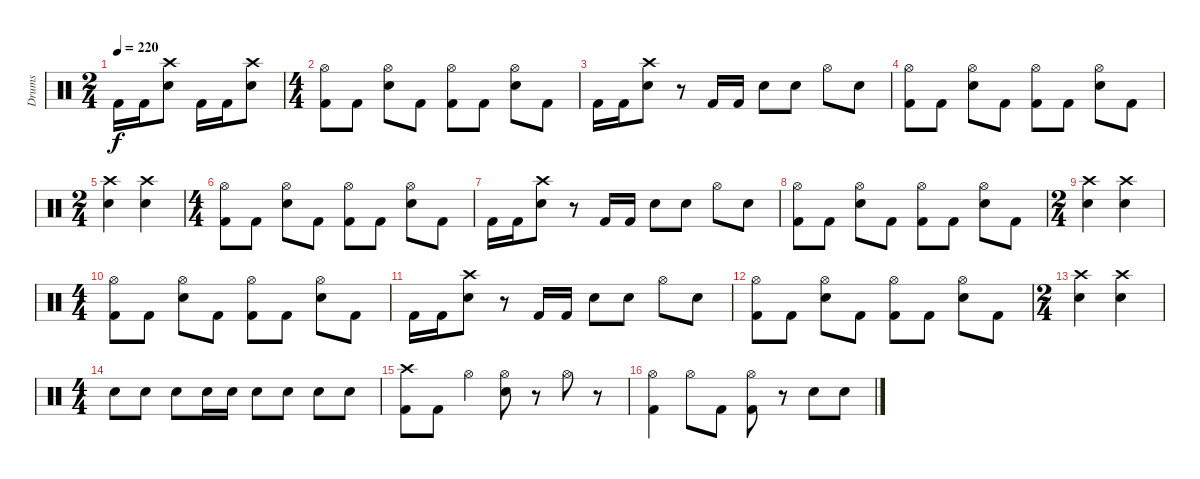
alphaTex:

\track ("Drums" "Drums") {instrument percussion}
\staff {score}
\articulation defaults
\ts (2 4)
\tempo 220
\clef neutral
\ks c "Kick (hit) 2".16{dy f} "Kick (hit) 2".16
("Crash high (hit)" "Snare (hit) 2").8 "Kick (hit) 2".16 "Kick (hit) 2".16 ("Crash high (hit)" "Snare (hit) 2").8 |
\ts (4 4)
("Hi-Hat (open)" "Kick (hit) 2").8 "Kick (hit) 2".8 ("Hi-Hat (open)" "Snare (hit) 2").8 "Kick (hit) 2".8 ("Hi-Hat (open)" "Kick (hit) 2").8 "Kick (hit) 2".8 ("Hi-Hat (open)" "Snare (hit) 2").8 "Kick (hit) 2".8 |
"Kick (hit) 2".16 "Kick (hit) 2".16 ("Crash high (hit)" "Snare (hit) 2").8 r.8 "Kick (hit) 2".16 "Kick (hit) 2".16 "Snare (hit) 2".8 "Snare (hit) 2".8 "Hi-Hat (open)".8 "Snare (hit) 2".8 |
("Hi-Hat (open)" "Kick (hit) 2").8 "Kick (hit) 2".8 ("Hi-Hat (open)" "Snare (hit) 2").8 "Kick (hit) 2".8 ("Hi-Hat (open)" "Kick (hit) 2").8 "Kick (hit) 2".8 ("Hi-Hat (open)" "Snare (hit) 2").8 "Kick (hit) 2".8 |
\ts (2 4)
("Crash high (hit)" "Snare (hit) 2").4 ("Crash high (hit)" "Snare (hit) 2").4 |
\ts (4 4)
("Hi-Hat (open)" "Kick (hit) 2").8 "Kick (hit) 2".8 ("Hi-Hat (open)" "Snare (hit) 2").8 "Kick (hit) 2".8 ("Hi-Hat (open)" "Kick (hit) 2").8 "Kick (hit) 2".8 ("Hi-Hat (open)" "Snare (hit) 2").8 "Kick (hit) 2".8 |
"Kick (hit) 2".16 "Kick (hit) 2".16 ("Crash high (hit)" "Snare (hit) 2").8 r.8 "Kick (hit) 2".16 "Kick (hit) 2".16 "Snare (hit) 2".8 "Snare (hit) 2".8 "Hi-Hat (open)".8 "Snare (hit) 2".8 |
("Hi-Hat (open)" "Kick (hit) 2").8 "Kick (hit) 2".8 ("Hi-Hat (open)" "Snare (hit) 2").8 "Kick (hit) 2".8 ("Hi-Hat (open)" "Kick (hit) 2").8 "Kick (hit) 2".8 ("Hi-Hat (open)" "Snare (hit) 2").8 "Kick (hit) 2".8 |
\ts (2 4)
("Crash high (hit)" "Snare (hit) 2").4 ("Crash high (hit)" "Snare (hit) 2").4 |
\ts (4 4)
("Hi-Hat (open)" "Kick (hit) 2").8 "Kick (hit) 2".8 ("Hi-Hat (open)" "Snare (hit) 2").8 "Kick (hit) 2".8 ("Hi-Hat (open)" "Kick (hit) 2").8 "Kick (hit) 2".8 ("Hi-Hat (open)" "Snare (hit) 2").8 "Kick (hit) 2".8 |
"Kick (hit) 2".16 "Kick (hit) 2".16 ("Crash high (hit)" "Snare (hit) 2").8 r.8 "Kick (hit) 2".16 "Kick (hit) 2".16 "Snare (hit) 2".8 "Snare (hit) 2".8 "Hi-Hat (open)".8 "Snare (hit) 2".8 |
("Hi-Hat (open)" "Kick (hit) 2").8 "Kick (hit) 2".8 ("Hi-Hat (open)" "Snare (hit) 2").8 "Kick (hit) 2".8 ("Hi-Hat (open)" "Kick (hit) 2").8 "Kick (hit) 2".8 ("Hi-Hat (open)" "Snare (hit) 2").8 "Kick (hit) 2".8 |
\ts (2 4)
("Crash high (hit)" "Snare (hit) 2").4 ("Crash high (hit)" "Snare (hit) 2").4 |
\ts (4 4)
"Snare (hit) 2".8 "Snare (hit) 2".8 "Snare (hit) 2".8 "Snare (hit) 2".16 "Snare (hit) 2".16 "Snare (hit) 2".8 "Snare (hit) 2".8 "Snare (hit) 2".8 "Snare (hit) 2".8 |
("Crash high (hit)" "Kick (hit) 2").8 "Kick (hit) 2".8 "Hi-Hat (open)".4 ("Hi-Hat (open)" "Snare (hit) 2").8 r.8 "Hi-Hat (open)".8 r.8 |
("Hi-Hat (open)" "Kick (hit) 2").4 "Hi-Hat (open)".8 "Kick (hit) 2".8 ("Hi-Hat (open)" "Kick (hit) 2").8 r.8 "Snare (hit) 2".8 "Snare (hit) 2".8
